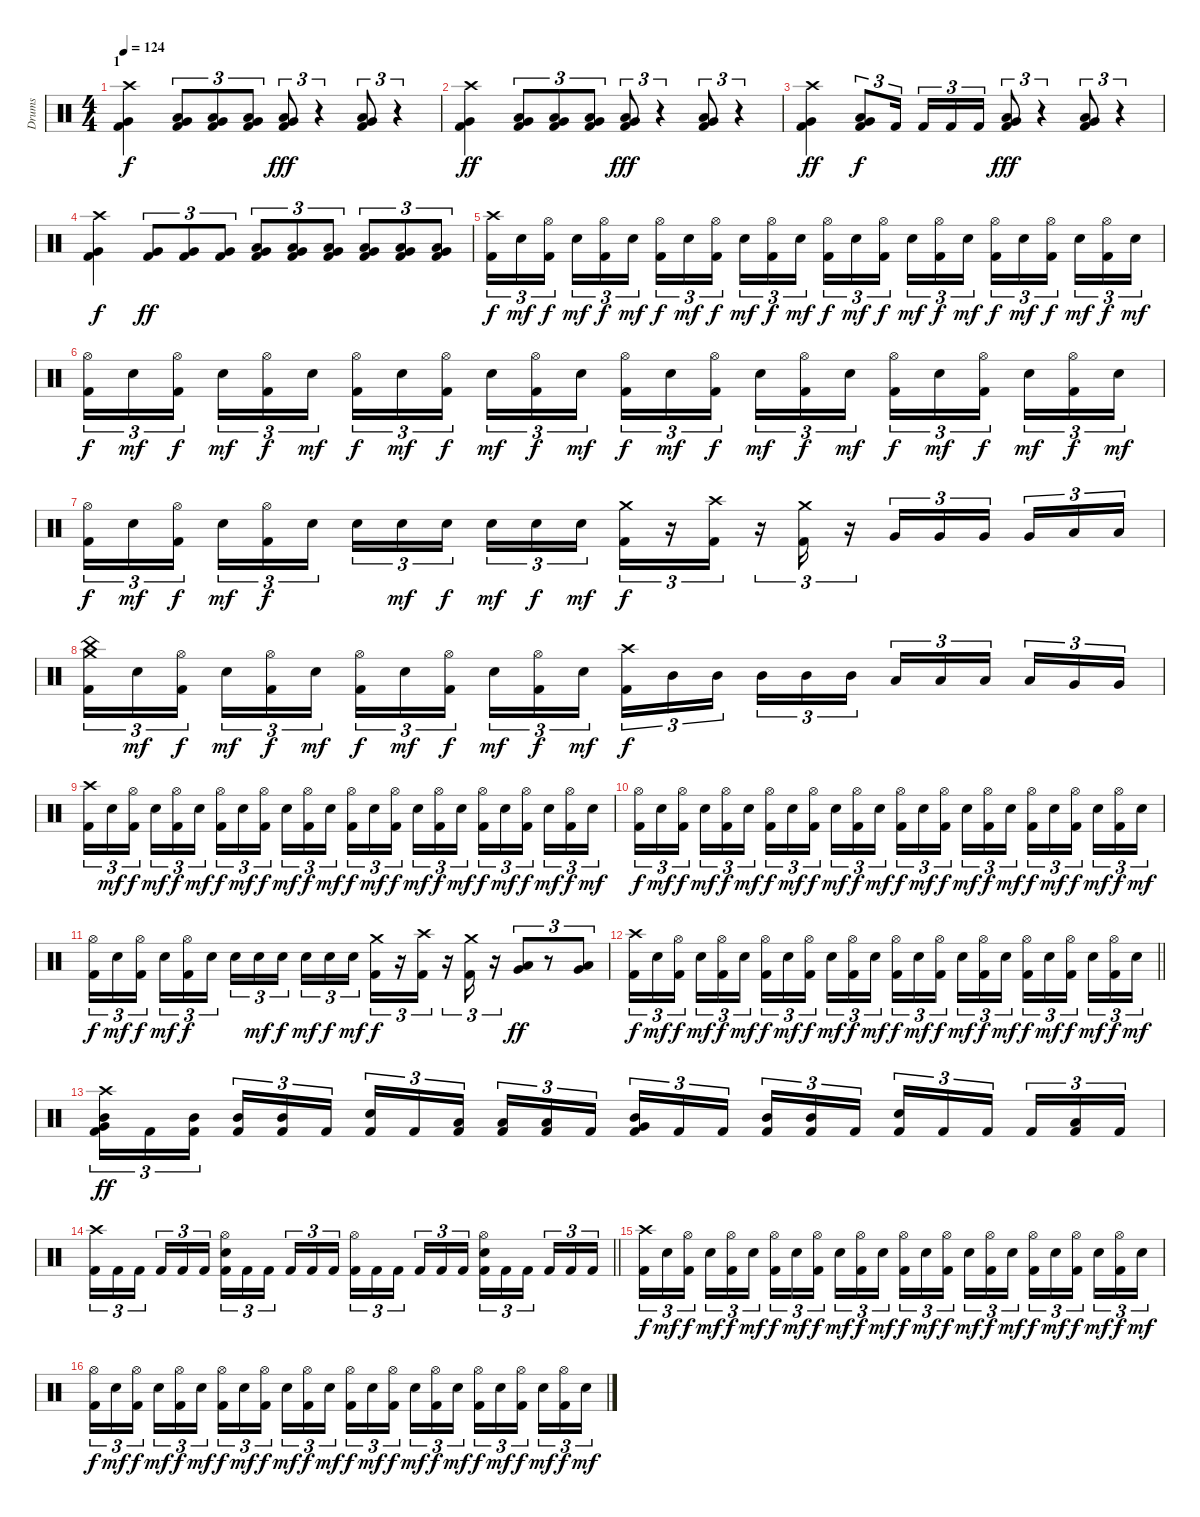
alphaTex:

\track ("Drums" "Drums") {instrument percussion}
\staff {score}
\articulation defaults
\ts (4 4)
\section ("" "1")
\tempo 124
\clef neutral
\ks c
("Crash high (hit)" "Very Low Tom (hit)" "Kick (hit) 2").4{dy f} ("Very Low Tom (hit)" "Low Tom (hit)" "Kick (hit) 2").8{tu (3 2)} ("Very Low Tom (hit)" "Low Tom (hit)" "Kick (hit) 2").8{tu (3 2)} ("Very Low Tom (hit)" "Low Tom (hit)" "Kick (hit) 2").8{tu (3 2)} ("Very Low Tom (hit)" "Low Tom (hit)" "Kick (hit) 2").8{tu (3 2) dy fff} r.4{tu (3 2)} ("Very Low Tom (hit)" "Low Tom (hit)" "Kick (hit) 2").8{tu (3 2)} r.4{tu (3 2)} |
("Crash high (hit)" "Very Low Tom (hit)" "Kick (hit) 2").4{dy ff} ("Very Low Tom (hit)" "Low Tom (hit)" "Kick (hit) 2").8{tu (3 2)} ("Very Low Tom (hit)" "Low Tom (hit)" "Kick (hit) 2").8{tu (3 2)} ("Very Low Tom (hit)" "Low Tom (hit)" "Kick (hit) 2").8{tu (3 2)} ("Very Low Tom (hit)" "Low Tom (hit)" "Kick (hit) 2").8{tu (3 2) dy fff} r.4{tu (3 2)} ("Very Low Tom (hit)" "Low Tom (hit)" "Kick (hit) 2").8{tu (3 2)} r.4{tu (3 2)} |
("Crash high (hit)" "Very Low Tom (hit)" "Kick (hit) 2").4{dy ff} ("Very Low Tom (hit)" "Low Tom (hit)" "Kick (hit) 2").8{tu (3 2) dy f} "Kick (hit) 2".16{tu (3 2)} "Kick (hit) 2".16{tu (3 2)} "Kick (hit) 2".16{tu (3 2)} "Kick (hit) 2".16{tu (3 2)} ("Very Low Tom (hit)" "Low Tom (hit)" "Kick (hit) 2").8{tu (3 2) dy fff} r.4{tu (3 2)} ("Very Low Tom (hit)" "Low Tom (hit)" "Kick (hit) 2").8{tu (3 2)} r.4{tu (3 2)} |
("Crash high (hit)" "Very Low Tom (hit)" "Kick (hit) 2").4{dy f} ("Very Low Tom (hit)" "Kick (hit) 2").8{tu (3 2) dy ff} ("Very Low Tom (hit)" "Kick (hit) 2").8{tu (3 2)} ("Very Low Tom (hit)" "Kick (hit) 2").8{tu (3 2)} ("Very Low Tom (hit)" "Low Tom (hit)" "Kick (hit) 2").8{tu (3 2)} ("Very Low Tom (hit)" "Low Tom (hit)" "Kick (hit) 2").8{tu (3 2)} ("Very Low Tom (hit)" "Low Tom (hit)" "Kick (hit) 2").8{tu (3 2)} ("Very Low Tom (hit)" "Low Floor Tom (hit)" "Kick (hit) 2").8{tu (3 2)} ("Very Low Tom (hit)" "Low Floor Tom (hit)" "Kick (hit) 2").8{tu (3 2)} ("Very Low Tom (hit)" "Low Floor Tom (hit)" "Kick (hit) 2").8{tu (3 2)} |
("Crash high (hit)" "Kick (hit) 2").16{tu (3 2) dy f} "Electric Snare (hit)".16{tu (3 2) dy mf} ("Hi-Hat (open)" "Kick (hit) 2").16{tu (3 2) dy f} "Electric Snare (hit)".16{tu (3 2) dy mf} ("Hi-Hat (open)" "Kick (hit) 2").16{tu (3 2) dy f} "Electric Snare (hit)".16{tu (3 2) dy mf} ("Hi-Hat (open)" "Kick (hit) 2").16{tu (3 2) dy f} "Electric Snare (hit)".16{tu (3 2) dy mf} ("Hi-Hat (open)" "Kick (hit) 2").16{tu (3 2) dy f} "Electric Snare (hit)".16{tu (3 2) dy mf} ("Hi-Hat (open)" "Kick (hit) 2").16{tu (3 2) dy f} "Electric Snare (hit)".16{tu (3 2) dy mf} ("Hi-Hat (open)" "Kick (hit) 2").16{tu (3 2) dy f} "Electric Snare (hit)".16{tu (3 2) dy mf} ("Hi-Hat (open)" "Kick (hit) 2").16{tu (3 2) dy f} "Electric Snare (hit)".16{tu (3 2) dy mf} ("Hi-Hat (open)" "Kick (hit) 2").16{tu (3 2) dy f} "Electric Snare (hit)".16{tu (3 2) dy mf} ("Hi-Hat (open)" "Kick (hit) 2").16{tu (3 2) dy f} "Electric Snare (hit)".16{tu (3 2) dy mf} ("Hi-Hat (open)" "Kick (hit) 2").16{tu (3 2) dy f} "Electric Snare (hit)".16{tu (3 2) dy mf} ("Hi-Hat (open)" "Kick (hit) 2").16{tu (3 2) dy f} "Electric Snare (hit)".16{tu (3 2) dy mf} |
("Hi-Hat (open)" "Kick (hit) 2").16{tu (3 2) dy f} "Electric Snare (hit)".16{tu (3 2) dy mf} ("Hi-Hat (open)" "Kick (hit) 2").16{tu (3 2) dy f} "Electric Snare (hit)".16{tu (3 2) dy mf} ("Hi-Hat (open)" "Kick (hit) 2").16{tu (3 2) dy f} "Electric Snare (hit)".16{tu (3 2) dy mf} ("Hi-Hat (open)" "Kick (hit) 2").16{tu (3 2) dy f} "Electric Snare (hit)".16{tu (3 2) dy mf} ("Hi-Hat (open)" "Kick (hit) 2").16{tu (3 2) dy f} "Electric Snare (hit)".16{tu (3 2) dy mf} ("Hi-Hat (open)" "Kick (hit) 2").16{tu (3 2) dy f} "Electric Snare (hit)".16{tu (3 2) dy mf} ("Hi-Hat (open)" "Kick (hit) 2").16{tu (3 2) dy f} "Electric Snare (hit)".16{tu (3 2) dy mf} ("Hi-Hat (open)" "Kick (hit) 2").16{tu (3 2) dy f} "Electric Snare (hit)".16{tu (3 2) dy mf} ("Hi-Hat (open)" "Kick (hit) 2").16{tu (3 2) dy f} "Electric Snare (hit)".16{tu (3 2) dy mf} ("Hi-Hat (open)" "Kick (hit) 2").16{tu (3 2) dy f} "Electric Snare (hit)".16{tu (3 2) dy mf} ("Hi-Hat (open)" "Kick (hit) 2").16{tu (3 2) dy f} "Electric Snare (hit)".16{tu (3 2) dy mf} ("Hi-Hat (open)" "Kick (hit) 2").16{tu (3 2) dy f} "Electric Snare (hit)".16{tu (3 2) dy mf} |
("Hi-Hat (open)" "Kick (hit) 2").16{tu (3 2) dy f} "Electric Snare (hit)".16{tu (3 2) dy mf} ("Hi-Hat (open)" "Kick (hit) 2").16{tu (3 2) dy f} "Electric Snare (hit)".16{tu (3 2) dy mf} ("Hi-Hat (open)" "Kick (hit) 2").16{tu (3 2) dy f} "Electric Snare (hit)".16{tu (3 2)} "Electric Snare (hit)".16{tu (3 2)} "Electric Snare (hit)".16{tu (3 2) dy mf} "Electric Snare (hit)".16{tu (3 2) dy f} "Electric Snare (hit)".16{tu (3 2) dy mf} "Electric Snare (hit)".16{tu (3 2) dy f} "Electric Snare (hit)".16{tu (3 2) dy mf} ("Crash medium (hit)" "Kick (hit) 2").16{tu (3 2) dy f} r.16{tu (3 2)} ("Crash high (hit)" "Kick (hit) 2").16{tu (3 2)} r.16{tu (3 2)} ("Crash medium (hit)" "Kick (hit) 2").16{tu (3 2)} r.16{tu (3 2)} "Very Low Tom (hit)".16{tu (3 2)} "Very Low Tom (hit)".16{tu (3 2)} "Very Low Tom (hit)".16{tu (3 2)} "Very Low Tom (hit)".16{tu (3 2)} "Low Floor Tom (hit)".16{tu (3 2)} "Low Floor Tom (hit)".16{tu (3 2)} |
("China (hit)" "Crash medium (hit)" "Kick (hit) 2").16{tu (3 2)} "Electric Snare (hit)".16{tu (3 2) dy mf} ("Hi-Hat (open)" "Kick (hit) 2").16{tu (3 2) dy f} "Electric Snare (hit)".16{tu (3 2) dy mf} ("Hi-Hat (open)" "Kick (hit) 2").16{tu (3 2) dy f} "Electric Snare (hit)".16{tu (3 2) dy mf} ("Hi-Hat (open)" "Kick (hit) 2").16{tu (3 2) dy f} "Electric Snare (hit)".16{tu (3 2) dy mf} ("Hi-Hat (open)" "Kick (hit) 2").16{tu (3 2) dy f} "Electric Snare (hit)".16{tu (3 2) dy mf} ("Hi-Hat (open)" "Kick (hit) 2").16{tu (3 2) dy f} "Electric Snare (hit)".16{tu (3 2) dy mf} ("Crash high (hit)" "Kick (hit) 2").16{tu (3 2) dy f} "Mid Tom (hit)".16{tu (3 2)} "Mid Tom (hit)".16{tu (3 2)} "Mid Tom (hit)".16{tu (3 2)} "Mid Tom (hit)".16{tu (3 2)} "Mid Tom (hit)".16{tu (3 2)} "Low Tom (hit)".16{tu (3 2)} "Low Tom (hit)".16{tu (3 2)} "Low Tom (hit)".16{tu (3 2)} "Low Tom (hit)".16{tu (3 2)} "Very Low Tom (hit)".16{tu (3 2)} "Very Low Tom (hit)".16{tu (3 2)} |
("Crash high (hit)" "Kick (hit) 2").16{tu (3 2)} "Electric Snare (hit)".16{tu (3 2) dy mf} ("Hi-Hat (open)" "Kick (hit) 2").16{tu (3 2) dy f} "Electric Snare (hit)".16{tu (3 2) dy mf} ("Hi-Hat (open)" "Kick (hit) 2").16{tu (3 2) dy f} "Electric Snare (hit)".16{tu (3 2) dy mf} ("Hi-Hat (open)" "Kick (hit) 2").16{tu (3 2) dy f} "Electric Snare (hit)".16{tu (3 2) dy mf} ("Hi-Hat (open)" "Kick (hit) 2").16{tu (3 2) dy f} "Electric Snare (hit)".16{tu (3 2) dy mf} ("Hi-Hat (open)" "Kick (hit) 2").16{tu (3 2) dy f} "Electric Snare (hit)".16{tu (3 2) dy mf} ("Hi-Hat (open)" "Kick (hit) 2").16{tu (3 2) dy f} "Electric Snare (hit)".16{tu (3 2) dy mf} ("Hi-Hat (open)" "Kick (hit) 2").16{tu (3 2) dy f} "Electric Snare (hit)".16{tu (3 2) dy mf} ("Hi-Hat (open)" "Kick (hit) 2").16{tu (3 2) dy f} "Electric Snare (hit)".16{tu (3 2) dy mf} ("Hi-Hat (open)" "Kick (hit) 2").16{tu (3 2) dy f} "Electric Snare (hit)".16{tu (3 2) dy mf} ("Hi-Hat (open)" "Kick (hit) 2").16{tu (3 2) dy f} "Electric Snare (hit)".16{tu (3 2) dy mf} ("Hi-Hat (open)" "Kick (hit) 2").16{tu (3 2) dy f} "Electric Snare (hit)".16{tu (3 2) dy mf} |
("Hi-Hat (open)" "Kick (hit) 2").16{tu (3 2) dy f} "Electric Snare (hit)".16{tu (3 2) dy mf} ("Hi-Hat (open)" "Kick (hit) 2").16{tu (3 2) dy f} "Electric Snare (hit)".16{tu (3 2) dy mf} ("Hi-Hat (open)" "Kick (hit) 2").16{tu (3 2) dy f} "Electric Snare (hit)".16{tu (3 2) dy mf} ("Hi-Hat (open)" "Kick (hit) 2").16{tu (3 2) dy f} "Electric Snare (hit)".16{tu (3 2) dy mf} ("Hi-Hat (open)" "Kick (hit) 2").16{tu (3 2) dy f} "Electric Snare (hit)".16{tu (3 2) dy mf} ("Hi-Hat (open)" "Kick (hit) 2").16{tu (3 2) dy f} "Electric Snare (hit)".16{tu (3 2) dy mf} ("Hi-Hat (open)" "Kick (hit) 2").16{tu (3 2) dy f} "Electric Snare (hit)".16{tu (3 2) dy mf} ("Hi-Hat (open)" "Kick (hit) 2").16{tu (3 2) dy f} "Electric Snare (hit)".16{tu (3 2) dy mf} ("Hi-Hat (open)" "Kick (hit) 2").16{tu (3 2) dy f} "Electric Snare (hit)".16{tu (3 2) dy mf} ("Hi-Hat (open)" "Kick (hit) 2").16{tu (3 2) dy f} "Electric Snare (hit)".16{tu (3 2) dy mf} ("Hi-Hat (open)" "Kick (hit) 2").16{tu (3 2) dy f} "Electric Snare (hit)".16{tu (3 2) dy mf} ("Hi-Hat (open)" "Kick (hit) 2").16{tu (3 2) dy f} "Electric Snare (hit)".16{tu (3 2) dy mf} |
("Hi-Hat (open)" "Kick (hit) 2").16{tu (3 2) dy f} "Electric Snare (hit)".16{tu (3 2) dy mf} ("Hi-Hat (open)" "Kick (hit) 2").16{tu (3 2) dy f} "Electric Snare (hit)".16{tu (3 2) dy mf} ("Hi-Hat (open)" "Kick (hit) 2").16{tu (3 2) dy f} "Electric Snare (hit)".16{tu (3 2)} "Electric Snare (hit)".16{tu (3 2)} "Electric Snare (hit)".16{tu (3 2) dy mf} "Electric Snare (hit)".16{tu (3 2) dy f} "Electric Snare (hit)".16{tu (3 2) dy mf} "Electric Snare (hit)".16{tu (3 2) dy f} "Electric Snare (hit)".16{tu (3 2) dy mf} ("Crash medium (hit)" "Kick (hit) 2").16{tu (3 2) dy f} r.16{tu (3 2)} ("Crash high (hit)" "Kick (hit) 2").16{tu (3 2)} r.16{tu (3 2)} ("Crash medium (hit)" "Kick (hit) 2").16{tu (3 2)} r.16{tu (3 2)} ("Low Tom (hit)" "Very Low Tom (hit)").8{tu (3 2) dy ff} r.8{tu (3 2)} ("Very Low Tom (hit)" "Low Floor Tom (hit)").8{tu (3 2)} |
\barLineRight lightlight
("Crash high (hit)" "Kick (hit) 2").16{tu (3 2) dy f} "Electric Snare (hit)".16{tu (3 2) dy mf} ("Hi-Hat (open)" "Kick (hit) 2").16{tu (3 2) dy f} "Electric Snare (hit)".16{tu (3 2) dy mf} ("Hi-Hat (open)" "Kick (hit) 2").16{tu (3 2) dy f} "Electric Snare (hit)".16{tu (3 2) dy mf} ("Hi-Hat (open)" "Kick (hit) 2").16{tu (3 2) dy f} "Electric Snare (hit)".16{tu (3 2) dy mf} ("Hi-Hat (open)" "Kick (hit) 2").16{tu (3 2) dy f} "Electric Snare (hit)".16{tu (3 2) dy mf} ("Hi-Hat (open)" "Kick (hit) 2").16{tu (3 2) dy f} "Electric Snare (hit)".16{tu (3 2) dy mf} ("Hi-Hat (open)" "Kick (hit) 2").16{tu (3 2) dy f} "Electric Snare (hit)".16{tu (3 2) dy mf} ("Hi-Hat (open)" "Kick (hit) 2").16{tu (3 2) dy f} "Electric Snare (hit)".16{tu (3 2) dy mf} ("Hi-Hat (open)" "Kick (hit) 2").16{tu (3 2) dy f} "Electric Snare (hit)".16{tu (3 2) dy mf} ("Hi-Hat (open)" "Kick (hit) 2").16{tu (3 2) dy f} "Electric Snare (hit)".16{tu (3 2) dy mf} ("Hi-Hat (open)" "Kick (hit) 2").16{tu (3 2) dy f} "Electric Snare (hit)".16{tu (3 2) dy mf} ("Hi-Hat (open)" "Kick (hit) 2").16{tu (3 2) dy f} "Electric Snare (hit)".16{tu (3 2) dy mf} |
("Crash high (hit)" "Mid Tom (hit)" "Very Low Tom (hit)" "Kick (hit) 2").16{tu (3 2) dy ff} "Kick (hit) 2".16{tu (3 2)} ("Mid Tom (hit)" "Kick (hit) 2").16{tu (3 2)} ("Mid Tom (hit)" "Kick (hit) 2").16{tu (3 2)} ("Mid Tom (hit)" "Kick (hit) 2").16{tu (3 2)} "Kick (hit) 2".16{tu (3 2)} ("Electric Snare (hit)" "Kick (hit) 2").16{tu (3 2)} "Kick (hit) 2".16{tu (3 2)} ("Low Tom (hit)" "Kick (hit) 2").16{tu (3 2)} ("Low Tom (hit)" "Kick (hit) 2").16{tu (3 2)} ("Low Tom (hit)" "Kick (hit) 2").16{tu (3 2)} "Kick (hit) 2".16{tu (3 2)} ("Mid Tom (hit)" "Very Low Tom (hit)" "Kick (hit) 2").16{tu (3 2)} "Kick (hit) 2".16{tu (3 2)} "Kick (hit) 2".16{tu (3 2)} ("Mid Tom (hit)" "Kick (hit) 2").16{tu (3 2)} ("Mid Tom (hit)" "Kick (hit) 2").16{tu (3 2)} "Kick (hit) 2".16{tu (3 2)} ("Electric Snare (hit)" "Kick (hit) 2").16{tu (3 2)} "Kick (hit) 2".16{tu (3 2)} "Kick (hit) 2".16{tu (3 2)} "Kick (hit) 2".16{tu (3 2)} ("Low Tom (hit)" "Kick (hit) 2").16{tu (3 2)} "Kick (hit) 2".16{tu (3 2)} |
\barLineRight lightlight
("Crash high (hit)" "Kick (hit) 2").16{tu (3 2)} "Kick (hit) 2".16{tu (3 2)} "Kick (hit) 2".16{tu (3 2)} "Kick (hit) 2".16{tu (3 2)} "Kick (hit) 2".16{tu (3 2)} "Kick (hit) 2".16{tu (3 2)} ("Hi-Hat (open)" "Electric Snare (hit)" "Kick (hit) 2").16{tu (3 2)} "Kick (hit) 2".16{tu (3 2)} "Kick (hit) 2".16{tu (3 2)} "Kick (hit) 2".16{tu (3 2)} "Kick (hit) 2".16{tu (3 2)} "Kick (hit) 2".16{tu (3 2)} ("Hi-Hat (open)" "Kick (hit) 2").16{tu (3 2)} "Kick (hit) 2".16{tu (3 2)} "Kick (hit) 2".16{tu (3 2)} "Kick (hit) 2".16{tu (3 2)} "Kick (hit) 2".16{tu (3 2)} "Kick (hit) 2".16{tu (3 2)} ("Hi-Hat (open)" "Electric Snare (hit)" "Kick (hit) 2").16{tu (3 2)} "Kick (hit) 2".16{tu (3 2)} "Kick (hit) 2".16{tu (3 2)} "Kick (hit) 2".16{tu (3 2)} "Kick (hit) 2".16{tu (3 2)} "Kick (hit) 2".16{tu (3 2)} |
("Crash high (hit)" "Kick (hit) 2").16{tu (3 2) dy f} "Electric Snare (hit)".16{tu (3 2) dy mf} ("Hi-Hat (open)" "Kick (hit) 2").16{tu (3 2) dy f} "Electric Snare (hit)".16{tu (3 2) dy mf} ("Hi-Hat (open)" "Kick (hit) 2").16{tu (3 2) dy f} "Electric Snare (hit)".16{tu (3 2) dy mf} ("Hi-Hat (open)" "Kick (hit) 2").16{tu (3 2) dy f} "Electric Snare (hit)".16{tu (3 2) dy mf} ("Hi-Hat (open)" "Kick (hit) 2").16{tu (3 2) dy f} "Electric Snare (hit)".16{tu (3 2) dy mf} ("Hi-Hat (open)" "Kick (hit) 2").16{tu (3 2) dy f} "Electric Snare (hit)".16{tu (3 2) dy mf} ("Hi-Hat (open)" "Kick (hit) 2").16{tu (3 2) dy f} "Electric Snare (hit)".16{tu (3 2) dy mf} ("Hi-Hat (open)" "Kick (hit) 2").16{tu (3 2) dy f} "Electric Snare (hit)".16{tu (3 2) dy mf} ("Hi-Hat (open)" "Kick (hit) 2").16{tu (3 2) dy f} "Electric Snare (hit)".16{tu (3 2) dy mf} ("Hi-Hat (open)" "Kick (hit) 2").16{tu (3 2) dy f} "Electric Snare (hit)".16{tu (3 2) dy mf} ("Hi-Hat (open)" "Kick (hit) 2").16{tu (3 2) dy f} "Electric Snare (hit)".16{tu (3 2) dy mf} ("Hi-Hat (open)" "Kick (hit) 2").16{tu (3 2) dy f} "Electric Snare (hit)".16{tu (3 2) dy mf} |
("Hi-Hat (open)" "Kick (hit) 2").16{tu (3 2) dy f} "Electric Snare (hit)".16{tu (3 2) dy mf} ("Hi-Hat (open)" "Kick (hit) 2").16{tu (3 2) dy f} "Electric Snare (hit)".16{tu (3 2) dy mf} ("Hi-Hat (open)" "Kick (hit) 2").16{tu (3 2) dy f} "Electric Snare (hit)".16{tu (3 2) dy mf} ("Hi-Hat (open)" "Kick (hit) 2").16{tu (3 2) dy f} "Electric Snare (hit)".16{tu (3 2) dy mf} ("Hi-Hat (open)" "Kick (hit) 2").16{tu (3 2) dy f} "Electric Snare (hit)".16{tu (3 2) dy mf} ("Hi-Hat (open)" "Kick (hit) 2").16{tu (3 2) dy f} "Electric Snare (hit)".16{tu (3 2) dy mf} ("Hi-Hat (open)" "Kick (hit) 2").16{tu (3 2) dy f} "Electric Snare (hit)".16{tu (3 2) dy mf} ("Hi-Hat (open)" "Kick (hit) 2").16{tu (3 2) dy f} "Electric Snare (hit)".16{tu (3 2) dy mf} ("Hi-Hat (open)" "Kick (hit) 2").16{tu (3 2) dy f} "Electric Snare (hit)".16{tu (3 2) dy mf} ("Hi-Hat (open)" "Kick (hit) 2").16{tu (3 2) dy f} "Electric Snare (hit)".16{tu (3 2) dy mf} ("Hi-Hat (open)" "Kick (hit) 2").16{tu (3 2) dy f} "Electric Snare (hit)".16{tu (3 2) dy mf} ("Hi-Hat (open)" "Kick (hit) 2").16{tu (3 2) dy f} "Electric Snare (hit)".16{tu (3 2) dy mf}
